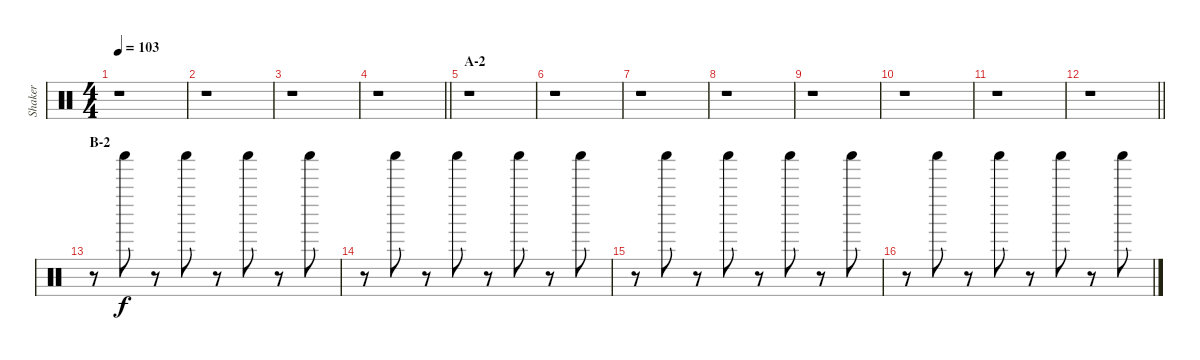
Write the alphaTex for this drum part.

\track ("Shaker" "Shaker") {instrument percussion}
\staff {score}
\articulation defaults
\ts (4 4)
\tempo 103
\clef neutral
\ks c
r.1{dy f} |
r.1 |
r.1 |
\barLineRight lightlight
r.1 |
\section ("" "A-2")
r.1 |
r.1 |
r.1 |
r.1 |
r.1 |
r.1 |
r.1 |
\barLineRight lightlight
r.1 |
\section ("" "B-2")
r.8 "Shaker (hit)".8 r.8 "Shaker (hit)".8 r.8 "Shaker (hit)".8 r.8 "Shaker (hit)".8 |
r.8 "Shaker (hit)".8 r.8 "Shaker (hit)".8 r.8 "Shaker (hit)".8 r.8 "Shaker (hit)".8 |
r.8 "Shaker (hit)".8 r.8 "Shaker (hit)".8 r.8 "Shaker (hit)".8 r.8 "Shaker (hit)".8 |
r.8 "Shaker (hit)".8 r.8 "Shaker (hit)".8 r.8 "Shaker (hit)".8 r.8 "Shaker (hit)".8
